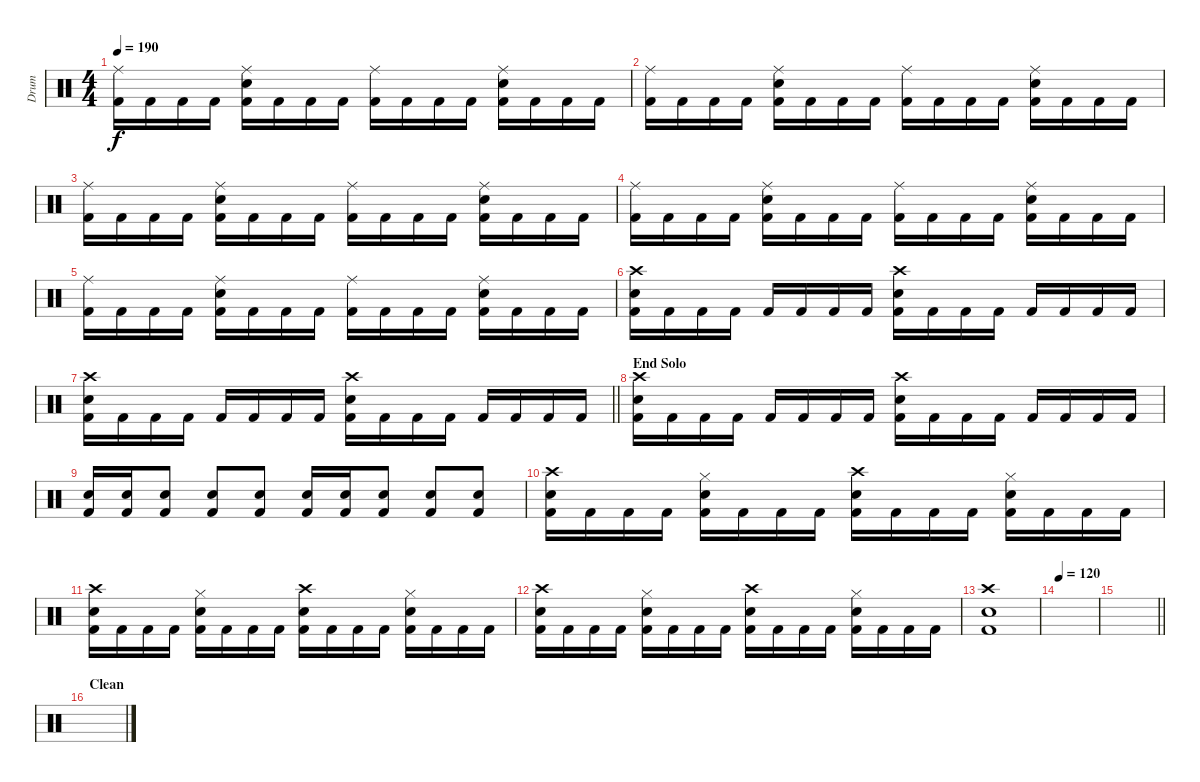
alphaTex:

\track ("Drum" "Drum") {instrument percussion}
\staff {score}
\articulation defaults
\ts (4 4)
\tempo 190
\clef neutral
\ks c
("Ride (middle)" "Kick (hit) 2").16{dy f} "Kick (hit) 2".16 "Kick (hit) 2".16 "Kick (hit) 2".16 ("Ride (middle)" "Snare (hit) 2" "Kick (hit) 2").16 "Kick (hit) 2".16 "Kick (hit) 2".16 "Kick (hit) 2".16 ("Ride (middle)" "Kick (hit) 2").16 "Kick (hit) 2".16 "Kick (hit) 2".16 "Kick (hit) 2".16 ("Ride (middle)" "Snare (hit) 2" "Kick (hit) 2").16 "Kick (hit) 2".16 "Kick (hit) 2".16 "Kick (hit) 2".16 |
("Ride (middle)" "Kick (hit) 2").16 "Kick (hit) 2".16 "Kick (hit) 2".16 "Kick (hit) 2".16 ("Ride (middle)" "Snare (hit) 2" "Kick (hit) 2").16 "Kick (hit) 2".16 "Kick (hit) 2".16 "Kick (hit) 2".16 ("Ride (middle)" "Kick (hit) 2").16 "Kick (hit) 2".16 "Kick (hit) 2".16 "Kick (hit) 2".16 ("Ride (middle)" "Snare (hit) 2" "Kick (hit) 2").16 "Kick (hit) 2".16 "Kick (hit) 2".16 "Kick (hit) 2".16 |
("Ride (middle)" "Kick (hit) 2").16 "Kick (hit) 2".16 "Kick (hit) 2".16 "Kick (hit) 2".16 ("Ride (middle)" "Snare (hit) 2" "Kick (hit) 2").16 "Kick (hit) 2".16 "Kick (hit) 2".16 "Kick (hit) 2".16 ("Ride (middle)" "Kick (hit) 2").16 "Kick (hit) 2".16 "Kick (hit) 2".16 "Kick (hit) 2".16 ("Ride (middle)" "Snare (hit) 2" "Kick (hit) 2").16 "Kick (hit) 2".16 "Kick (hit) 2".16 "Kick (hit) 2".16 |
("Ride (middle)" "Kick (hit) 2").16 "Kick (hit) 2".16 "Kick (hit) 2".16 "Kick (hit) 2".16 ("Ride (middle)" "Snare (hit) 2" "Kick (hit) 2").16 "Kick (hit) 2".16 "Kick (hit) 2".16 "Kick (hit) 2".16 ("Ride (middle)" "Kick (hit) 2").16 "Kick (hit) 2".16 "Kick (hit) 2".16 "Kick (hit) 2".16 ("Ride (middle)" "Snare (hit) 2" "Kick (hit) 2").16 "Kick (hit) 2".16 "Kick (hit) 2".16 "Kick (hit) 2".16 |
("Ride (middle)" "Kick (hit) 2").16 "Kick (hit) 2".16 "Kick (hit) 2".16 "Kick (hit) 2".16 ("Ride (middle)" "Snare (hit) 2" "Kick (hit) 2").16 "Kick (hit) 2".16 "Kick (hit) 2".16 "Kick (hit) 2".16 ("Ride (middle)" "Kick (hit) 2").16 "Kick (hit) 2".16 "Kick (hit) 2".16 "Kick (hit) 2".16 ("Ride (middle)" "Snare (hit) 2" "Kick (hit) 2").16 "Kick (hit) 2".16 "Kick (hit) 2".16 "Kick (hit) 2".16 |
("Crash high (hit)" "Snare (hit) 2" "Kick (hit) 2").16 "Kick (hit) 2".16 "Kick (hit) 2".16 "Kick (hit) 2".16 "Kick (hit) 2".16 "Kick (hit) 2".16 "Kick (hit) 2".16 "Kick (hit) 2".16 ("Crash high (hit)" "Snare (hit) 2" "Kick (hit) 2").16 "Kick (hit) 2".16 "Kick (hit) 2".16 "Kick (hit) 2".16 "Kick (hit) 2".16 "Kick (hit) 2".16 "Kick (hit) 2".16 "Kick (hit) 2".16 |
\barLineRight lightlight
("Crash high (hit)" "Snare (hit) 2" "Kick (hit) 2").16 "Kick (hit) 2".16 "Kick (hit) 2".16 "Kick (hit) 2".16 "Kick (hit) 2".16 "Kick (hit) 2".16 "Kick (hit) 2".16 "Kick (hit) 2".16 ("Crash high (hit)" "Snare (hit) 2" "Kick (hit) 2").16 "Kick (hit) 2".16 "Kick (hit) 2".16 "Kick (hit) 2".16 "Kick (hit) 2".16 "Kick (hit) 2".16 "Kick (hit) 2".16 "Kick (hit) 2".16 |
\section ("" "End Solo")
("Crash high (hit)" "Snare (hit) 2" "Kick (hit) 2").16 "Kick (hit) 2".16 "Kick (hit) 2".16 "Kick (hit) 2".16 "Kick (hit) 2".16 "Kick (hit) 2".16 "Kick (hit) 2".16 "Kick (hit) 2".16 ("Crash high (hit)" "Snare (hit) 2" "Kick (hit) 2").16 "Kick (hit) 2".16 "Kick (hit) 2".16 "Kick (hit) 2".16 "Kick (hit) 2".16 "Kick (hit) 2".16 "Kick (hit) 2".16 "Kick (hit) 2".16 |
("Snare (hit) 2" "Kick (hit) 2").16 ("Snare (hit) 2" "Kick (hit) 2").16 ("Snare (hit) 2" "Kick (hit) 2").8 ("Snare (hit) 2" "Kick (hit) 2").8 ("Snare (hit) 2" "Kick (hit) 2").8 ("Snare (hit) 2" "Kick (hit) 2").16 ("Snare (hit) 2" "Kick (hit) 2").16 ("Snare (hit) 2" "Kick (hit) 2").8 ("Snare (hit) 2" "Kick (hit) 2").8 ("Snare (hit) 2" "Kick (hit) 2").8 |
("Crash high (hit)" "Snare (hit) 2" "Kick (hit) 2").16 "Kick (hit) 2".16 "Kick (hit) 2".16 "Kick (hit) 2".16 ("Hi-Hat (closed)" "Snare (hit) 2" "Kick (hit) 2").16 "Kick (hit) 2".16 "Kick (hit) 2".16 "Kick (hit) 2".16 ("Crash high (hit)" "Snare (hit) 2" "Kick (hit) 2").16 "Kick (hit) 2".16 "Kick (hit) 2".16 "Kick (hit) 2".16 ("Hi-Hat (closed)" "Snare (hit) 2" "Kick (hit) 2").16 "Kick (hit) 2".16 "Kick (hit) 2".16 "Kick (hit) 2".16 |
("Crash high (hit)" "Snare (hit) 2" "Kick (hit) 2").16 "Kick (hit) 2".16 "Kick (hit) 2".16 "Kick (hit) 2".16 ("Hi-Hat (closed)" "Snare (hit) 2" "Kick (hit) 2").16 "Kick (hit) 2".16 "Kick (hit) 2".16 "Kick (hit) 2".16 ("Crash high (hit)" "Snare (hit) 2" "Kick (hit) 2").16 "Kick (hit) 2".16 "Kick (hit) 2".16 "Kick (hit) 2".16 ("Hi-Hat (closed)" "Snare (hit) 2" "Kick (hit) 2").16 "Kick (hit) 2".16 "Kick (hit) 2".16 "Kick (hit) 2".16 |
("Crash high (hit)" "Snare (hit) 2" "Kick (hit) 2").16 "Kick (hit) 2".16 "Kick (hit) 2".16 "Kick (hit) 2".16 ("Hi-Hat (closed)" "Snare (hit) 2" "Kick (hit) 2").16 "Kick (hit) 2".16 "Kick (hit) 2".16 "Kick (hit) 2".16 ("Crash high (hit)" "Snare (hit) 2" "Kick (hit) 2").16 "Kick (hit) 2".16 "Kick (hit) 2".16 "Kick (hit) 2".16 ("Hi-Hat (closed)" "Snare (hit) 2" "Kick (hit) 2").16 "Kick (hit) 2".16 "Kick (hit) 2".16 "Kick (hit) 2".16 |
("Crash high (hit)" "Snare (hit) 2" "Kick (hit) 2").1 |
\tempo 120
|
\barLineRight lightlight
|
\section ("" "Clean")
